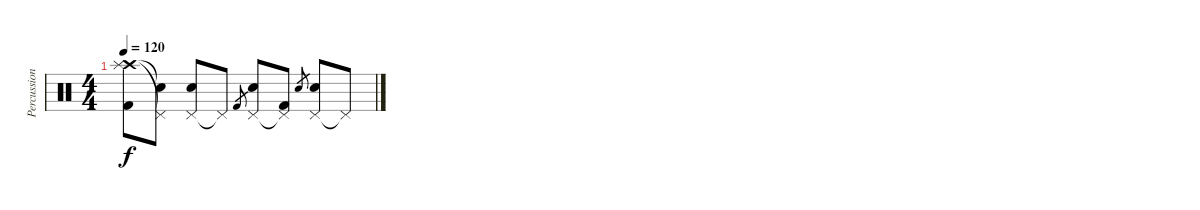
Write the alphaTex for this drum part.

\track ("Percussion" "Percussion") {instrument percussion}
\staff {score}
\articulation defaults
\ts (4 4)
\tempo 120
\clef neutral
\ks c
("Crash high (hit)" "Splash (hit)" "Kick (hit) 2").8{dy f} ("Pedal Hi-Hat (hit)"{t} "Snare (hit)"{t}).8 ("Pedal Hi-Hat (hit)" "Electric Snare (hit)").8 "Pedal Hi-Hat (hit)"{t}.8 "Kick (hit) 2".8{gr} ("Pedal Hi-Hat (hit)" "Electric Snare (hit)").8 ("Pedal Hi-Hat (hit)"{t} "Kick (hit) 2").8 "Electric Snare (hit)".8{gr} ("Pedal Hi-Hat (hit)" "Electric Snare (hit)").8 "Pedal Hi-Hat (hit)"{t}.8
